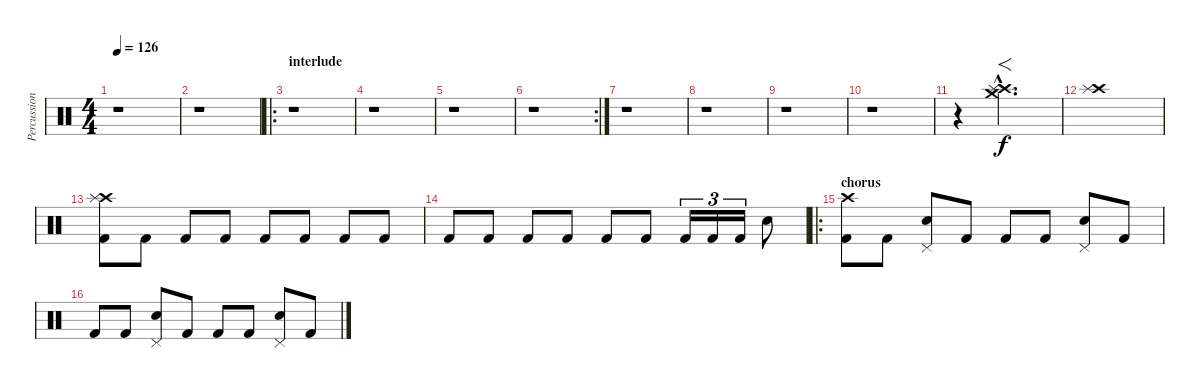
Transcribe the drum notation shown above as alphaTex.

\track ("Percussion" "Percussion") {instrument percussion}
\staff {score}
\articulation defaults
\ts (4 4)
\tempo 126
\clef neutral
\ks c
r.1{dy f} |
r.1 |
\ro
\section ("" "interlude")
r.1 |
r.1 |
r.1 |
\rc 2
r.1 |
r.1 |
r.1 |
r.1 |
r.1 |
r.4 ("Crash high (hit)"{hac} "Splash (hit)"{hac} "Crash medium (hit)"{hac}).2{f d} |
("Crash high (hit)" "Splash (hit)").1 |
("Crash high (hit)" "Splash (hit)" "Kick (hit) 2").8 "Kick (hit) 2".8 "Kick (hit) 2".8 "Kick (hit) 2".8 "Kick (hit) 2".8 "Kick (hit) 2".8 "Kick (hit) 2".8 "Kick (hit) 2".8 |
"Kick (hit) 2".8 "Kick (hit) 2".8 "Kick (hit) 2".8 "Kick (hit) 2".8 "Kick (hit) 2".8 "Kick (hit) 2".8 "Kick (hit) 2".16{tu (3 2)} "Kick (hit) 2".16{tu (3 2)} "Kick (hit) 2".16{tu (3 2)} "Electric Snare (hit)".8 |
\ro
\section ("" "chorus")
("Crash high (hit)" "Kick (hit) 2").8 "Kick (hit) 2".8 ("Pedal Hi-Hat (hit)" "Electric Snare (hit)").8 "Kick (hit) 2".8 "Kick (hit) 2".8 "Kick (hit) 2".8 ("Pedal Hi-Hat (hit)" "Electric Snare (hit)").8 "Kick (hit) 2".8 |
"Kick (hit) 2".8 "Kick (hit) 2".8 ("Pedal Hi-Hat (hit)" "Electric Snare (hit)").8 "Kick (hit) 2".8 "Kick (hit) 2".8 "Kick (hit) 2".8 ("Pedal Hi-Hat (hit)" "Electric Snare (hit)").8 "Kick (hit) 2".8
